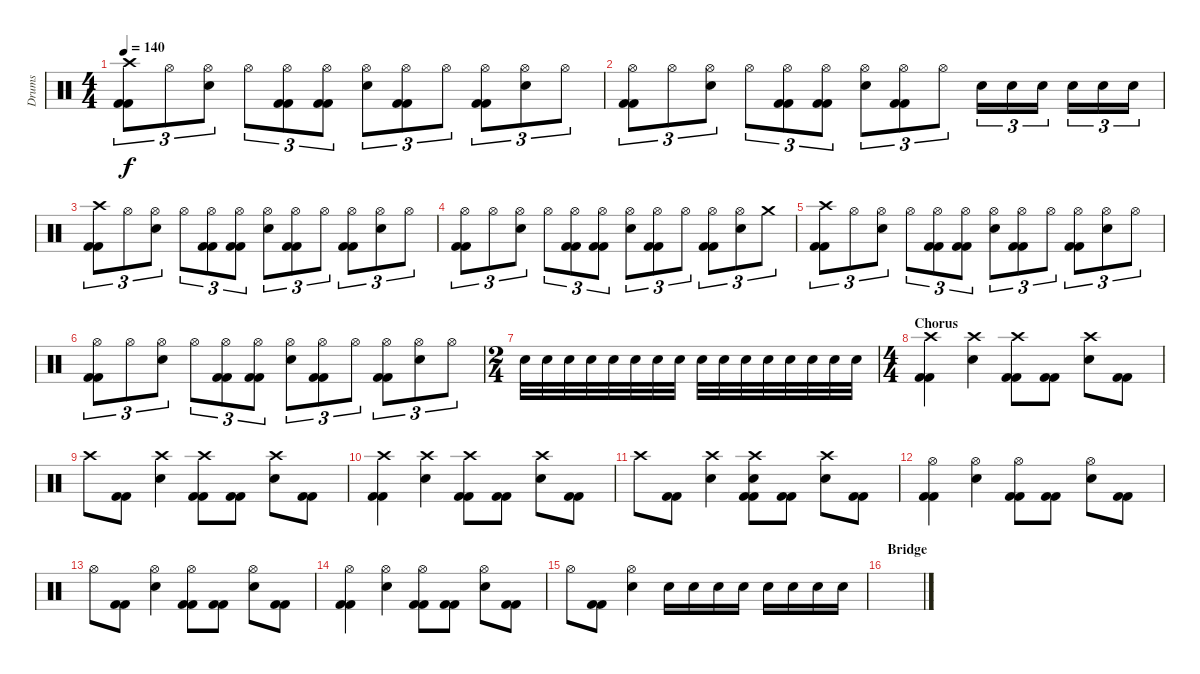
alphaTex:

\track ("Drums" "Drums") {instrument percussion}
\staff {score}
\articulation defaults
\ts (4 4)
\tempo 140
\clef neutral
\ks c
("Crash high (hit)" "Kick (hit) 2" "Kick (hit) 2").8{tu (3 2) dy f} "Hi-Hat (open)".8{tu (3 2)} ("Hi-Hat (open)" "Electric Snare (hit)").8{tu (3 2)} "Hi-Hat (open)".8{tu (3 2)} ("Hi-Hat (open)" "Kick (hit) 2" "Kick (hit) 2").8{tu (3 2)} ("Hi-Hat (open)" "Kick (hit) 2" "Kick (hit) 2").8{tu (3 2)} ("Hi-Hat (open)" "Electric Snare (hit)").8{tu (3 2)} ("Hi-Hat (open)" "Kick (hit) 2" "Kick (hit) 2").8{tu (3 2)} "Hi-Hat (open)".8{tu (3 2)} ("Hi-Hat (open)" "Kick (hit) 2" "Kick (hit) 2").8{tu (3 2)} ("Hi-Hat (open)" "Electric Snare (hit)").8{tu (3 2)} "Hi-Hat (open)".8{tu (3 2)} |
("Hi-Hat (open)" "Kick (hit) 2" "Kick (hit) 2").8{tu (3 2)} "Hi-Hat (open)".8{tu (3 2)} ("Hi-Hat (open)" "Electric Snare (hit)").8{tu (3 2)} "Hi-Hat (open)".8{tu (3 2)} ("Hi-Hat (open)" "Kick (hit) 2" "Kick (hit) 2").8{tu (3 2)} ("Hi-Hat (open)" "Kick (hit) 2" "Kick (hit) 2").8{tu (3 2)} ("Hi-Hat (open)" "Electric Snare (hit)").8{tu (3 2)} ("Hi-Hat (open)" "Kick (hit) 2" "Kick (hit) 2").8{tu (3 2)} "Hi-Hat (open)".8{tu (3 2)} "Electric Snare (hit)".16{tu (3 2)} "Electric Snare (hit)".16{tu (3 2)} "Electric Snare (hit)".16{tu (3 2)} "Electric Snare (hit)".16{tu (3 2)} "Electric Snare (hit)".16{tu (3 2)} "Electric Snare (hit)".16{tu (3 2)} |
("Crash high (hit)" "Kick (hit) 2" "Kick (hit) 2").8{tu (3 2)} "Hi-Hat (open)".8{tu (3 2)} ("Hi-Hat (open)" "Electric Snare (hit)").8{tu (3 2)} "Hi-Hat (open)".8{tu (3 2)} ("Hi-Hat (open)" "Kick (hit) 2" "Kick (hit) 2").8{tu (3 2)} ("Hi-Hat (open)" "Kick (hit) 2" "Kick (hit) 2").8{tu (3 2)} ("Hi-Hat (open)" "Electric Snare (hit)").8{tu (3 2)} ("Hi-Hat (open)" "Kick (hit) 2" "Kick (hit) 2").8{tu (3 2)} "Hi-Hat (open)".8{tu (3 2)} ("Hi-Hat (open)" "Kick (hit) 2" "Kick (hit) 2").8{tu (3 2)} ("Hi-Hat (open)" "Electric Snare (hit)").8{tu (3 2)} "Hi-Hat (open)".8{tu (3 2)} |
("Hi-Hat (open)" "Kick (hit) 2" "Kick (hit) 2").8{tu (3 2)} "Hi-Hat (open)".8{tu (3 2)} ("Hi-Hat (open)" "Electric Snare (hit)").8{tu (3 2)} "Hi-Hat (open)".8{tu (3 2)} ("Hi-Hat (open)" "Kick (hit) 2" "Kick (hit) 2").8{tu (3 2)} ("Hi-Hat (open)" "Kick (hit) 2" "Kick (hit) 2").8{tu (3 2)} ("Hi-Hat (open)" "Electric Snare (hit)").8{tu (3 2)} ("Hi-Hat (open)" "Kick (hit) 2" "Kick (hit) 2").8{tu (3 2)} "Hi-Hat (open)".8{tu (3 2)} ("Hi-Hat (open)" "Kick (hit) 2" "Kick (hit) 2").8{tu (3 2)} ("Hi-Hat (open)" "Electric Snare (hit)").8{tu (3 2)} "Crash medium (hit)".8{tu (3 2)} |
("Crash high (hit)" "Kick (hit) 2" "Kick (hit) 2").8{tu (3 2)} "Hi-Hat (open)".8{tu (3 2)} ("Hi-Hat (open)" "Electric Snare (hit)").8{tu (3 2)} "Hi-Hat (open)".8{tu (3 2)} ("Hi-Hat (open)" "Kick (hit) 2" "Kick (hit) 2").8{tu (3 2)} ("Hi-Hat (open)" "Kick (hit) 2" "Kick (hit) 2").8{tu (3 2)} ("Hi-Hat (open)" "Electric Snare (hit)").8{tu (3 2)} ("Hi-Hat (open)" "Kick (hit) 2" "Kick (hit) 2").8{tu (3 2)} "Hi-Hat (open)".8{tu (3 2)} ("Hi-Hat (open)" "Kick (hit) 2" "Kick (hit) 2").8{tu (3 2)} ("Hi-Hat (open)" "Electric Snare (hit)").8{tu (3 2)} "Hi-Hat (open)".8{tu (3 2)} |
("Hi-Hat (open)" "Kick (hit) 2" "Kick (hit) 2").8{tu (3 2)} "Hi-Hat (open)".8{tu (3 2)} ("Hi-Hat (open)" "Electric Snare (hit)").8{tu (3 2)} "Hi-Hat (open)".8{tu (3 2)} ("Hi-Hat (open)" "Kick (hit) 2" "Kick (hit) 2").8{tu (3 2)} ("Hi-Hat (open)" "Kick (hit) 2" "Kick (hit) 2").8{tu (3 2)} ("Hi-Hat (open)" "Electric Snare (hit)").8{tu (3 2)} ("Hi-Hat (open)" "Kick (hit) 2" "Kick (hit) 2").8{tu (3 2)} "Hi-Hat (open)".8{tu (3 2)} ("Hi-Hat (open)" "Kick (hit) 2" "Kick (hit) 2").8{tu (3 2)} ("Hi-Hat (open)" "Electric Snare (hit)").8{tu (3 2)} "Hi-Hat (open)".8{tu (3 2)} |
\ts (2 4)
"Electric Snare (hit)".32 "Electric Snare (hit)".32 "Electric Snare (hit)".32 "Electric Snare (hit)".32 "Electric Snare (hit)".32 "Electric Snare (hit)".32 "Electric Snare (hit)".32 "Electric Snare (hit)".32 "Electric Snare (hit)".32 "Electric Snare (hit)".32 "Electric Snare (hit)".32 "Electric Snare (hit)".32 "Electric Snare (hit)".32 "Electric Snare (hit)".32 "Electric Snare (hit)".32 "Electric Snare (hit)".32 |
\ts (4 4)
\section ("" "Chorus")
("Crash high (hit)" "Kick (hit) 2" "Kick (hit) 2").4 ("Crash high (hit)" "Electric Snare (hit)").4 ("Crash high (hit)" "Kick (hit) 2" "Kick (hit) 2").8 ("Kick (hit) 2" "Kick (hit) 2").8 ("Crash high (hit)" "Electric Snare (hit)").8 ("Kick (hit) 2" "Kick (hit) 2").8 |
"Crash high (hit)".8 ("Kick (hit) 2" "Kick (hit) 2").8 ("Crash high (hit)" "Electric Snare (hit)").4 ("Crash high (hit)" "Kick (hit) 2" "Kick (hit) 2").8 ("Kick (hit) 2" "Kick (hit) 2").8 ("Crash high (hit)" "Electric Snare (hit)").8 ("Kick (hit) 2" "Kick (hit) 2").8 |
("Crash high (hit)" "Kick (hit) 2" "Kick (hit) 2").4 ("Crash high (hit)" "Electric Snare (hit)").4 ("Crash high (hit)" "Kick (hit) 2" "Kick (hit) 2").8 ("Kick (hit) 2" "Kick (hit) 2").8 ("Crash high (hit)" "Electric Snare (hit)").8 ("Kick (hit) 2" "Kick (hit) 2").8 |
"Crash high (hit)".8 ("Kick (hit) 2" "Kick (hit) 2").8 ("Crash high (hit)" "Electric Snare (hit)").4 ("Crash high (hit)" "Kick (hit) 2" "Electric Snare (hit)" "Kick (hit) 2").8 ("Kick (hit) 2" "Kick (hit) 2").8 ("Crash high (hit)" "Electric Snare (hit)").8 ("Kick (hit) 2" "Kick (hit) 2").8 |
("Hi-Hat (open)" "Kick (hit) 2" "Kick (hit) 2").4 ("Hi-Hat (open)" "Electric Snare (hit)").4 ("Hi-Hat (open)" "Kick (hit) 2" "Kick (hit) 2").8 ("Kick (hit) 2" "Kick (hit) 2").8 ("Hi-Hat (open)" "Electric Snare (hit)").8 ("Kick (hit) 2" "Kick (hit) 2").8 |
"Hi-Hat (open)".8 ("Kick (hit) 2" "Kick (hit) 2").8 ("Hi-Hat (open)" "Electric Snare (hit)").4 ("Hi-Hat (open)" "Kick (hit) 2" "Kick (hit) 2").8 ("Kick (hit) 2" "Kick (hit) 2").8 ("Hi-Hat (open)" "Electric Snare (hit)").8 ("Kick (hit) 2" "Kick (hit) 2").8 |
("Hi-Hat (open)" "Kick (hit) 2" "Kick (hit) 2").4 ("Hi-Hat (open)" "Electric Snare (hit)").4 ("Hi-Hat (open)" "Kick (hit) 2" "Kick (hit) 2").8 ("Kick (hit) 2" "Kick (hit) 2").8 ("Hi-Hat (open)" "Electric Snare (hit)").8 ("Kick (hit) 2" "Kick (hit) 2").8 |
"Hi-Hat (open)".8 ("Kick (hit) 2" "Kick (hit) 2").8 ("Hi-Hat (open)" "Electric Snare (hit)").4 "Electric Snare (hit)".16 "Electric Snare (hit)".16 "Electric Snare (hit)".16 "Electric Snare (hit)".16 "Electric Snare (hit)".16 "Electric Snare (hit)".16 "Electric Snare (hit)".16 "Electric Snare (hit)".16 |
\section ("" "Bridge")
